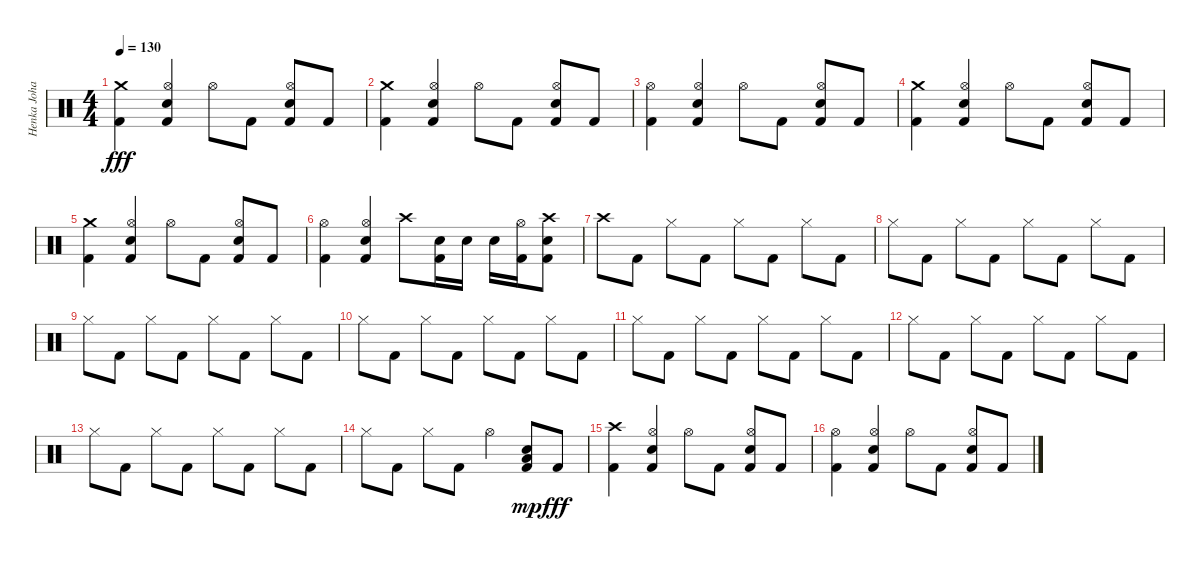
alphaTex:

\track ("Henka Johansson" "Henka Joha") {instrument percussion}
\staff {score}
\articulation defaults
\ts (4 4)
\tempo 130
\clef neutral
\ks c
("Crash medium (hit)" "Kick (hit) 2").4{dy fff} ("Hi-Hat (open)" "Electric Snare (hit)" "Kick (hit) 2").4 "Hi-Hat (open)".8 "Kick (hit) 2".8 ("Hi-Hat (open)" "Electric Snare (hit)" "Kick (hit) 2").8 "Kick (hit) 2".8 |
("Crash medium (hit)" "Kick (hit) 2").4 ("Hi-Hat (open)" "Electric Snare (hit)" "Kick (hit) 2").4 "Hi-Hat (open)".8 "Kick (hit) 2".8 ("Hi-Hat (open)" "Electric Snare (hit)" "Kick (hit) 2").8 "Kick (hit) 2".8 |
("Hi-Hat (open)" "Kick (hit) 2").4 ("Hi-Hat (open)" "Electric Snare (hit)" "Kick (hit) 2").4 "Hi-Hat (open)".8 "Kick (hit) 2".8 ("Hi-Hat (open)" "Electric Snare (hit)" "Kick (hit) 2").8 "Kick (hit) 2".8 |
("Crash medium (hit)" "Kick (hit) 2").4 ("Hi-Hat (open)" "Electric Snare (hit)" "Kick (hit) 2").4 "Hi-Hat (open)".8 "Kick (hit) 2".8 ("Hi-Hat (open)" "Electric Snare (hit)" "Kick (hit) 2").8 "Kick (hit) 2".8 |
("Crash medium (hit)" "Kick (hit) 2").4 ("Hi-Hat (open)" "Electric Snare (hit)" "Kick (hit) 2").4 "Hi-Hat (open)".8 "Kick (hit) 2".8 ("Hi-Hat (open)" "Electric Snare (hit)" "Kick (hit) 2").8 "Kick (hit) 2".8 |
("Hi-Hat (open)" "Kick (hit) 2").4 ("Hi-Hat (open)" "Electric Snare (hit)" "Kick (hit) 2").4 "Crash high (hit)".8 ("Electric Snare (hit)" "Kick (hit) 2").16 "Electric Snare (hit)".16 "Electric Snare (hit)".16 ("Hi-Hat (open)" "Kick (hit) 2").16 ("Crash high (hit)" "Electric Snare (hit)" "Kick (hit) 2").8 |
"Crash high (hit)".8 "Kick (hit) 2".8 "Hi-Hat (closed)".8 "Kick (hit) 2".8 "Hi-Hat (closed)".8 "Kick (hit) 2".8 "Hi-Hat (closed)".8 "Kick (hit) 2".8 |
"Hi-Hat (closed)".8 "Kick (hit) 2".8 "Hi-Hat (closed)".8 "Kick (hit) 2".8 "Hi-Hat (closed)".8 "Kick (hit) 2".8 "Hi-Hat (closed)".8 "Kick (hit) 2".8 |
"Hi-Hat (closed)".8 "Kick (hit) 2".8 "Hi-Hat (closed)".8 "Kick (hit) 2".8 "Hi-Hat (closed)".8 "Kick (hit) 2".8 "Hi-Hat (closed)".8 "Kick (hit) 2".8 |
"Hi-Hat (closed)".8 "Kick (hit) 2".8 "Hi-Hat (closed)".8 "Kick (hit) 2".8 "Hi-Hat (closed)".8 "Kick (hit) 2".8 "Hi-Hat (closed)".8 "Kick (hit) 2".8 |
"Hi-Hat (closed)".8 "Kick (hit) 2".8 "Hi-Hat (closed)".8 "Kick (hit) 2".8 "Hi-Hat (closed)".8 "Kick (hit) 2".8 "Hi-Hat (closed)".8 "Kick (hit) 2".8 |
"Hi-Hat (closed)".8 "Kick (hit) 2".8 "Hi-Hat (closed)".8 "Kick (hit) 2".8 "Hi-Hat (closed)".8 "Kick (hit) 2".8 "Hi-Hat (closed)".8 "Kick (hit) 2".8 |
"Hi-Hat (closed)".8 "Kick (hit) 2".8 "Hi-Hat (closed)".8 "Kick (hit) 2".8 "Hi-Hat (closed)".8 "Kick (hit) 2".8 "Hi-Hat (closed)".8 "Kick (hit) 2".8 |
"Hi-Hat (closed)".8 "Kick (hit) 2".8 "Hi-Hat (closed)".8 "Kick (hit) 2".8 "Hi-Hat (open)".4 ("Low Tom (hit)" "Electric Snare (hit)" "Kick (hit) 2").8{dy mp} "Kick (hit) 2".8{dy fff} |
("Crash high (hit)" "Kick (hit) 2").4 ("Hi-Hat (open)" "Electric Snare (hit)" "Kick (hit) 2").4 "Hi-Hat (open)".8 "Kick (hit) 2".8 ("Hi-Hat (open)" "Electric Snare (hit)" "Kick (hit) 2").8 "Kick (hit) 2".8 |
("Hi-Hat (open)" "Kick (hit) 2").4 ("Hi-Hat (open)" "Electric Snare (hit)" "Kick (hit) 2").4 "Hi-Hat (open)".8 "Kick (hit) 2".8 ("Hi-Hat (open)" "Electric Snare (hit)" "Kick (hit) 2").8 "Kick (hit) 2".8
